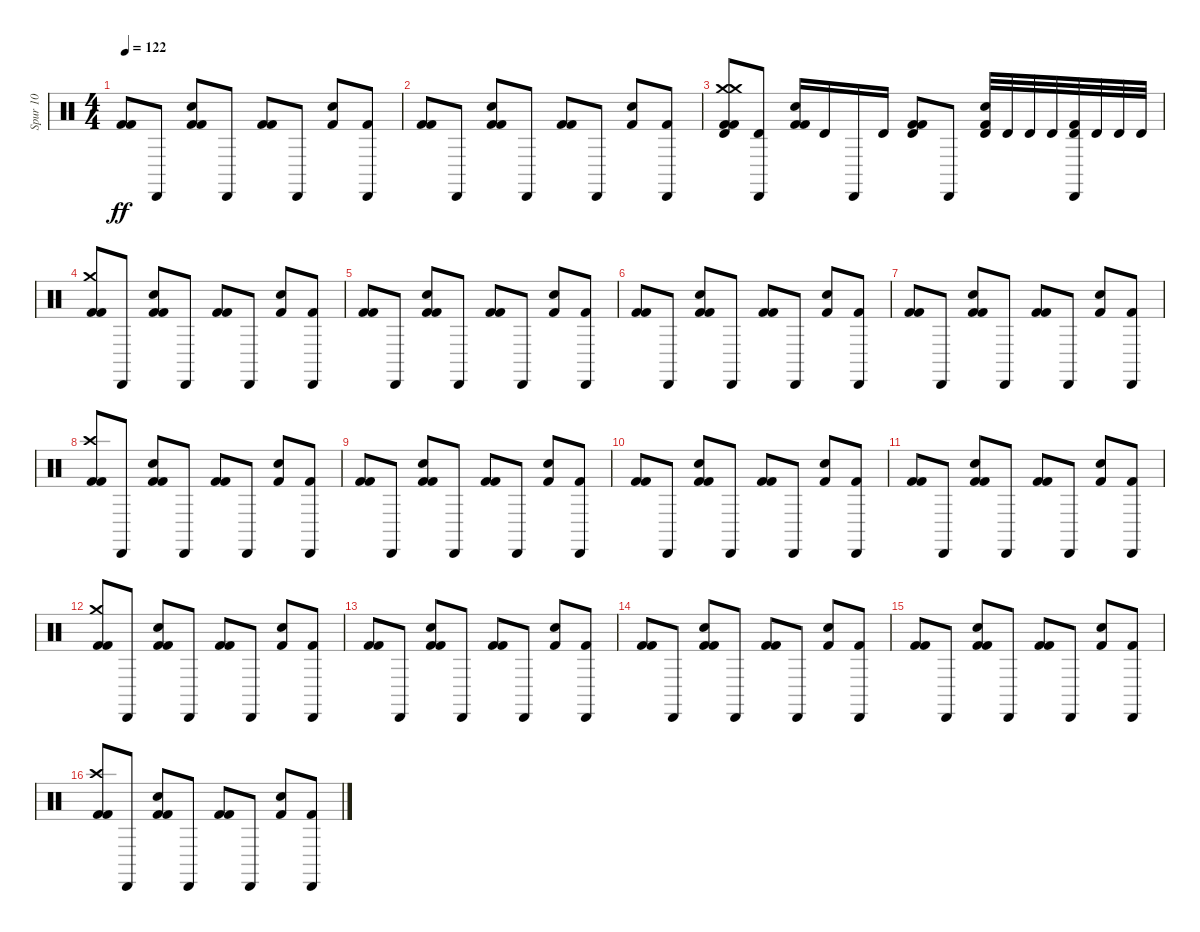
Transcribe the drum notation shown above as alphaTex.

\track ("Spur 10" "Spur 10") {instrument percussion}
\staff {score}
\articulation defaults
\ts (4 4)
\tempo 122
\clef neutral
\ks c
("Kick (hit) 2" "Kick (hit) 2").8{dy ff} "Cabasa (hit)".8 ("Kick (hit) 2" "Kick (hit) 2" "Hand Clap (hit)").8 "Cabasa (hit)".8 ("Kick (hit) 2" "Kick (hit) 2").8 "Cabasa (hit)".8 ("Hand Clap (hit)" "Kick (hit) 2").8 ("Cabasa (hit)" "Kick (hit) 2").8 |
("Kick (hit) 2" "Kick (hit) 2").8 "Cabasa (hit)".8 ("Kick (hit) 2" "Kick (hit) 2" "Hand Clap (hit)").8 "Cabasa (hit)".8 ("Kick (hit) 2" "Kick (hit) 2").8 "Cabasa (hit)".8 ("Hand Clap (hit)" "Kick (hit) 2").8 ("Cabasa (hit)" "Kick (hit) 2").8 |
("Crash medium (hit)" "Kick (hit) 2" "Kick (hit) 2" "Timbale high (hit)" "Crash medium (hit)").8 ("Cabasa (hit)" "Timbale high (hit)").8 ("Kick (hit) 2" "Kick (hit) 2" "Hand Clap (hit)").16 "Timbale high (hit)".16 "Cabasa (hit)".16 "Timbale high (hit)".16 ("Kick (hit) 2" "Kick (hit) 2" "Timbale high (hit)").8 "Cabasa (hit)".8 ("Hand Clap (hit)" "Kick (hit) 2" "Timbale high (hit)").32 "Timbale high (hit)".32 "Timbale high (hit)".32 "Timbale high (hit)".32 ("Cabasa (hit)" "Timbale high (hit)" "Kick (hit) 2").32 "Timbale high (hit)".32 "Timbale high (hit)".32 "Timbale high (hit)".32 |
("Crash medium (hit)" "Kick (hit) 2" "Kick (hit) 2").8 "Cabasa (hit)".8 ("Kick (hit) 2" "Kick (hit) 2" "Hand Clap (hit)").8 "Cabasa (hit)".8 ("Kick (hit) 2" "Kick (hit) 2").8 "Cabasa (hit)".8 ("Hand Clap (hit)" "Kick (hit) 2").8 ("Cabasa (hit)" "Kick (hit) 2").8 |
("Kick (hit) 2" "Kick (hit) 2").8 "Cabasa (hit)".8 ("Kick (hit) 2" "Kick (hit) 2" "Hand Clap (hit)").8 "Cabasa (hit)".8 ("Kick (hit) 2" "Kick (hit) 2").8 "Cabasa (hit)".8 ("Hand Clap (hit)" "Kick (hit) 2").8 ("Cabasa (hit)" "Kick (hit) 2").8 |
("Kick (hit) 2" "Kick (hit) 2").8 "Cabasa (hit)".8 ("Kick (hit) 2" "Kick (hit) 2" "Hand Clap (hit)").8 "Cabasa (hit)".8 ("Kick (hit) 2" "Kick (hit) 2").8 "Cabasa (hit)".8 ("Hand Clap (hit)" "Kick (hit) 2").8 ("Cabasa (hit)" "Kick (hit) 2").8 |
("Kick (hit) 2" "Kick (hit) 2").8 "Cabasa (hit)".8 ("Kick (hit) 2" "Kick (hit) 2" "Hand Clap (hit)").8 "Cabasa (hit)".8 ("Kick (hit) 2" "Kick (hit) 2").8 "Cabasa (hit)".8 ("Hand Clap (hit)" "Kick (hit) 2").8 ("Cabasa (hit)" "Kick (hit) 2").8 |
("Kick (hit) 2" "Kick (hit) 2" "Crash high (hit)").8 "Cabasa (hit)".8 ("Kick (hit) 2" "Kick (hit) 2" "Hand Clap (hit)").8 "Cabasa (hit)".8 ("Kick (hit) 2" "Kick (hit) 2").8 "Cabasa (hit)".8 ("Hand Clap (hit)" "Kick (hit) 2").8 ("Cabasa (hit)" "Kick (hit) 2").8 |
("Kick (hit) 2" "Kick (hit) 2").8 "Cabasa (hit)".8 ("Kick (hit) 2" "Kick (hit) 2" "Hand Clap (hit)").8 "Cabasa (hit)".8 ("Kick (hit) 2" "Kick (hit) 2").8 "Cabasa (hit)".8 ("Hand Clap (hit)" "Kick (hit) 2").8 ("Cabasa (hit)" "Kick (hit) 2").8 |
("Kick (hit) 2" "Kick (hit) 2").8 "Cabasa (hit)".8 ("Kick (hit) 2" "Kick (hit) 2" "Hand Clap (hit)").8 "Cabasa (hit)".8 ("Kick (hit) 2" "Kick (hit) 2").8 "Cabasa (hit)".8 ("Hand Clap (hit)" "Kick (hit) 2").8 ("Cabasa (hit)" "Kick (hit) 2").8 |
("Kick (hit) 2" "Kick (hit) 2").8 "Cabasa (hit)".8 ("Kick (hit) 2" "Kick (hit) 2" "Hand Clap (hit)").8 "Cabasa (hit)".8 ("Kick (hit) 2" "Kick (hit) 2").8 "Cabasa (hit)".8 ("Hand Clap (hit)" "Kick (hit) 2").8 ("Cabasa (hit)" "Kick (hit) 2").8 |
("Kick (hit) 2" "Kick (hit) 2" "Crash medium (hit)").8 "Cabasa (hit)".8 ("Kick (hit) 2" "Kick (hit) 2" "Hand Clap (hit)").8 "Cabasa (hit)".8 ("Kick (hit) 2" "Kick (hit) 2").8 "Cabasa (hit)".8 ("Hand Clap (hit)" "Kick (hit) 2").8 ("Cabasa (hit)" "Kick (hit) 2").8 |
("Kick (hit) 2" "Kick (hit) 2").8 "Cabasa (hit)".8 ("Kick (hit) 2" "Kick (hit) 2" "Hand Clap (hit)").8 "Cabasa (hit)".8 ("Kick (hit) 2" "Kick (hit) 2").8 "Cabasa (hit)".8 ("Hand Clap (hit)" "Kick (hit) 2").8 ("Cabasa (hit)" "Kick (hit) 2").8 |
("Kick (hit) 2" "Kick (hit) 2").8 "Cabasa (hit)".8 ("Kick (hit) 2" "Kick (hit) 2" "Hand Clap (hit)").8 "Cabasa (hit)".8 ("Kick (hit) 2" "Kick (hit) 2").8 "Cabasa (hit)".8 ("Hand Clap (hit)" "Kick (hit) 2").8 ("Cabasa (hit)" "Kick (hit) 2").8 |
("Kick (hit) 2" "Kick (hit) 2").8 "Cabasa (hit)".8 ("Kick (hit) 2" "Kick (hit) 2" "Hand Clap (hit)").8 "Cabasa (hit)".8 ("Kick (hit) 2" "Kick (hit) 2").8 "Cabasa (hit)".8 ("Hand Clap (hit)" "Kick (hit) 2").8 ("Cabasa (hit)" "Kick (hit) 2").8 |
("Kick (hit) 2" "Kick (hit) 2" "Crash high (hit)").8 "Cabasa (hit)".8 ("Kick (hit) 2" "Kick (hit) 2" "Hand Clap (hit)").8 "Cabasa (hit)".8 ("Kick (hit) 2" "Kick (hit) 2").8 "Cabasa (hit)".8 ("Hand Clap (hit)" "Kick (hit) 2").8 ("Cabasa (hit)" "Kick (hit) 2").8
